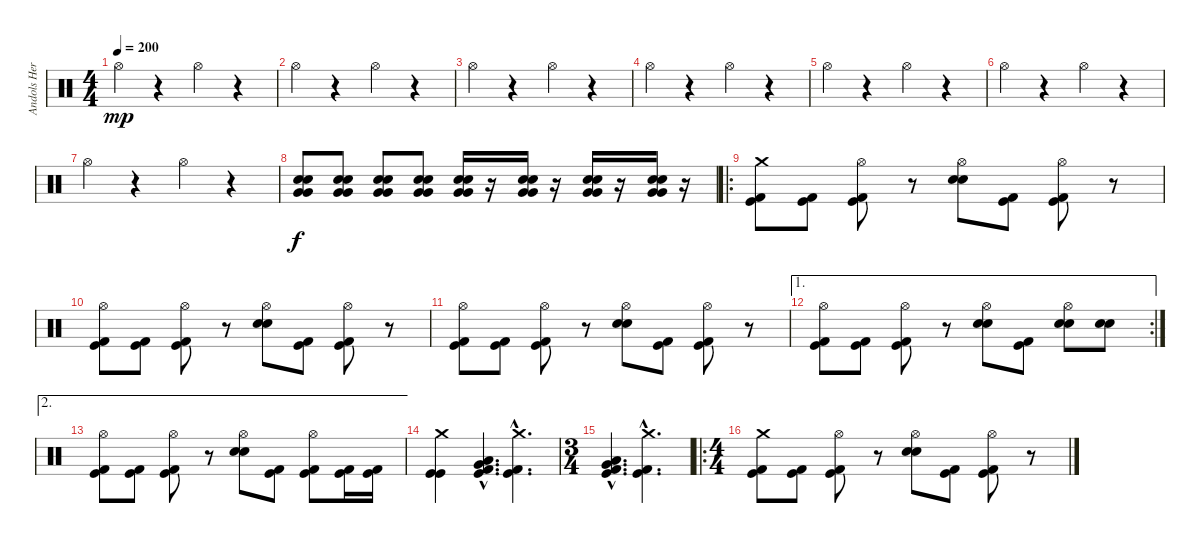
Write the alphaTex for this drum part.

\track ("Andols Herrick" "Andols Her") {instrument percussion}
\staff {score}
\articulation defaults
\ts (4 4)
\tempo 200
\clef neutral
\ks c "Hi-Hat (open)".4{dy mp}
r.4 "Hi-Hat (open)".4 r.4 |
"Hi-Hat (open)".4 r.4 "Hi-Hat (open)".4 r.4 |
"Hi-Hat (open)".4 r.4 "Hi-Hat (open)".4 r.4 |
"Hi-Hat (open)".4 r.4 "Hi-Hat (open)".4 r.4 |
"Hi-Hat (open)".4 r.4 "Hi-Hat (open)".4 r.4 |
"Hi-Hat (open)".4 r.4 "Hi-Hat (open)".4 r.4 |
"Hi-Hat (open)".4 r.4 "Hi-Hat (open)".4 r.4 |
("Very Low Tom (hit)" "Very Low Tom (hit)" "Electric Snare (hit)" "Snare (hit) 2").8{dy f} ("Very Low Tom (hit)" "Very Low Tom (hit)" "Electric Snare (hit)" "Snare (hit) 2").8 ("Very Low Tom (hit)" "Very Low Tom (hit)" "Electric Snare (hit)" "Snare (hit) 2").8 ("Very Low Tom (hit)" "Very Low Tom (hit)" "Electric Snare (hit)" "Snare (hit) 2").8 ("Very Low Tom (hit)" "Very Low Tom (hit)" "Electric Snare (hit)" "Snare (hit) 2").16 r.16 ("Very Low Tom (hit)" "Very Low Tom (hit)" "Electric Snare (hit)" "Snare (hit) 2").16 r.16 ("Very Low Tom (hit)" "Very Low Tom (hit)" "Electric Snare (hit)" "Snare (hit) 2").16 r.16 ("Very Low Tom (hit)" "Very Low Tom (hit)" "Electric Snare (hit)" "Snare (hit) 2").16 r.16 |
\ro
("Crash medium (hit)" "Kick (hit) 2" "Kick (hit)").8 ("Kick (hit) 2" "Kick (hit)").8 ("Hi-Hat (open)" "Kick (hit) 2" "Kick (hit)").8 r.8 ("Hi-Hat (open)" "Electric Snare (hit)" "Snare (hit) 2").8 ("Kick (hit) 2" "Kick (hit)").8 ("Hi-Hat (open)" "Kick (hit) 2" "Kick (hit)").8 r.8 |
("Hi-Hat (open)" "Kick (hit) 2" "Kick (hit)").8 ("Kick (hit) 2" "Kick (hit)").8 ("Hi-Hat (open)" "Kick (hit) 2" "Kick (hit)").8 r.8 ("Hi-Hat (open)" "Electric Snare (hit)" "Snare (hit) 2").8 ("Kick (hit) 2" "Kick (hit)").8 ("Hi-Hat (open)" "Kick (hit) 2" "Kick (hit)").8 r.8 |
("Hi-Hat (open)" "Kick (hit) 2" "Kick (hit)").8 ("Kick (hit) 2" "Kick (hit)").8 ("Hi-Hat (open)" "Kick (hit) 2" "Kick (hit)").8 r.8 ("Hi-Hat (open)" "Electric Snare (hit)" "Snare (hit) 2").8 ("Kick (hit) 2" "Kick (hit)").8 ("Hi-Hat (open)" "Kick (hit) 2" "Kick (hit)").8 r.8 |
\ae 1
\rc 2
("Hi-Hat (open)" "Kick (hit) 2" "Kick (hit)").8 ("Kick (hit) 2" "Kick (hit)").8 ("Hi-Hat (open)" "Kick (hit) 2" "Kick (hit)").8 r.8 ("Hi-Hat (open)" "Electric Snare (hit)" "Snare (hit) 2").8 ("Kick (hit) 2" "Kick (hit)").8 ("Hi-Hat (open)" "Electric Snare (hit)" "Snare (hit) 2").8 ("Electric Snare (hit)" "Snare (hit) 2").8 |
\ae 2
("Hi-Hat (open)" "Kick (hit) 2" "Kick (hit)").8 ("Kick (hit) 2" "Kick (hit)").8 ("Hi-Hat (open)" "Kick (hit) 2" "Kick (hit)").8 r.8 ("Hi-Hat (open)" "Electric Snare (hit)" "Snare (hit) 2").8 ("Kick (hit) 2" "Kick (hit)").8 ("Hi-Hat (open)" "Kick (hit) 2" "Kick (hit)").8 ("Kick (hit) 2" "Kick (hit)").16 ("Kick (hit) 2" "Kick (hit)").16 |
("Crash medium (hit)" "Kick (hit)" "Kick (hit)").4 ("Low Tom (hit)"{hac} "Very Low Tom (hit)"{hac} "Kick (hit) 2"{hac} "Kick (hit)"{hac}).4{d} ("Crash medium (hit)"{hac} "Kick (hit) 2"{hac} "Kick (hit)"{hac}).4{d} |
\ts (3 4)
("Low Tom (hit)"{hac} "Very Low Tom (hit)"{hac} "Kick (hit) 2"{hac} "Kick (hit)"{hac}).4{d} ("Crash medium (hit)"{hac} "Kick (hit) 2"{hac} "Kick (hit)"{hac}).4{d} |
\ro
\ts (4 4)
("Crash medium (hit)" "Kick (hit) 2" "Kick (hit)").8 ("Kick (hit) 2" "Kick (hit)").8 ("Hi-Hat (open)" "Kick (hit) 2" "Kick (hit)").8 r.8 ("Hi-Hat (open)" "Electric Snare (hit)" "Snare (hit) 2").8 ("Kick (hit) 2" "Kick (hit)").8 ("Hi-Hat (open)" "Kick (hit) 2" "Kick (hit)").8 r.8
